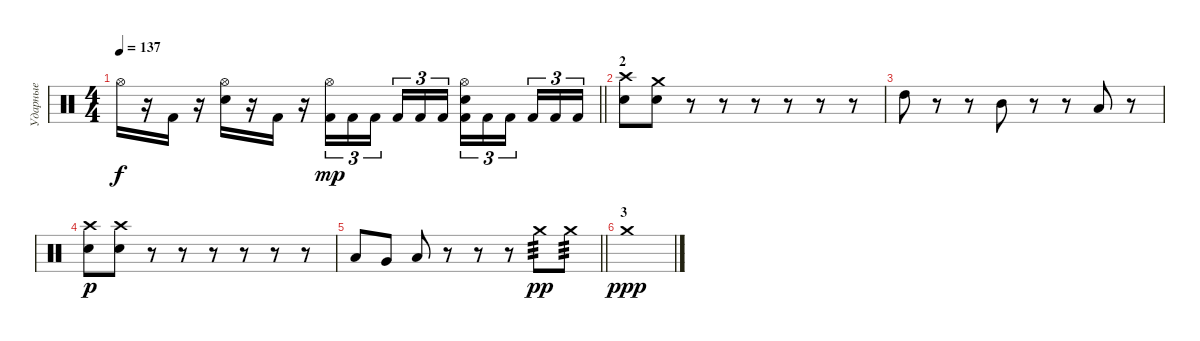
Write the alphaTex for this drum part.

\track ("Ударные" "Ударные") {instrument percussion}
\staff {score}
\articulation defaults
\ts (4 4)
\tempo 137
\clef neutral
\barLineRight lightlight
\ks c "Hi-Hat (open)".16{dy f}
r.16 "Kick (hit) 2".16 r.16 ("Hi-Hat (open)" "Snare (hit) 2").16 r.16 "Kick (hit) 2".16 r.16 ("Hi-Hat (open)" "Kick (hit) 2").16{tu (3 2) dy mp} "Kick (hit) 2".16{tu (3 2)} "Kick (hit) 2".16{tu (3 2) beam splitsecondary} "Kick (hit) 2".16{tu (3 2)} "Kick (hit) 2".16{tu (3 2)} "Kick (hit) 2".16{tu (3 2)} ("Hi-Hat (open)" "Snare (hit) 2" "Kick (hit) 2").16{tu (3 2)} "Kick (hit) 2".16{tu (3 2)} "Kick (hit) 2".16{tu (3 2) beam splitsecondary} "Kick (hit) 2".16{tu (3 2)} "Kick (hit) 2".16{tu (3 2)} "Kick (hit) 2".16{tu (3 2)} |
\section ("" "2")
("Crash high (hit)" "Snare (hit) 2").8 ("Crash medium (hit)" "Snare (hit) 2").8 r.8 r.8 r.8 r.8 r.8 r.8 |
"High Tom (hit)".8 r.8 r.8 "Mid Tom (hit)".8 r.8 r.8 "Low Tom (hit)".8 r.8 |
("Crash high (hit)" "Snare (hit) 2").8{dy p} ("Crash high (hit)" "Snare (hit) 2").8 r.8 r.8 r.8 r.8 r.8 r.8 |
\barLineRight lightlight "Low Tom (hit)".8 "Very Low Tom (hit)".8 "Low Tom (hit)".8
r.8 r.8 r.8 "Crash medium (hit)".8{tp 3 dy pp} "Crash medium (hit)".8{tp 3} |
\section ("" "3")
"Crash medium (hit)".1{dy ppp}
